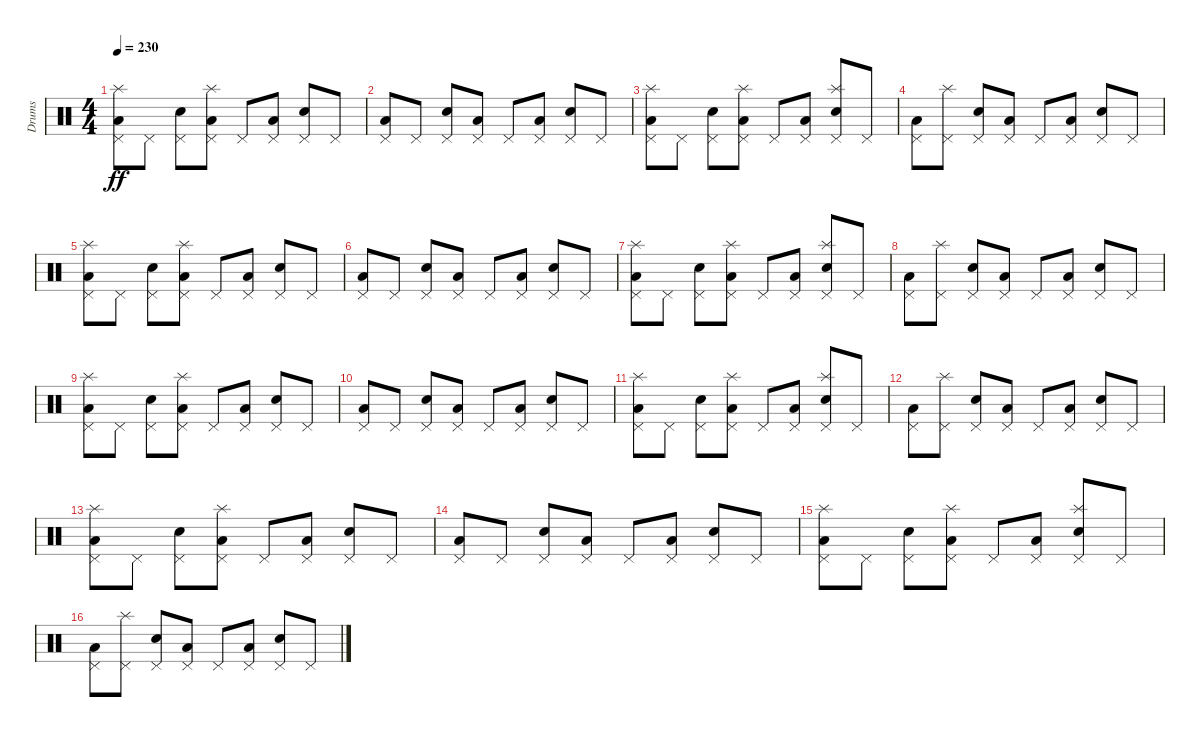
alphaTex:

\track ("Drums" "Drums") {instrument percussion}
\staff {score}
\articulation defaults
\ts (4 4)
\tempo 230
\clef neutral
\ks c
("Low Floor Tom (hit)" "Pedal Hi-Hat (hit)" "Splash (hit)").8{dy ff} "Pedal Hi-Hat (hit)".8 ("Electric Snare (hit)" "Pedal Hi-Hat (hit)").8 ("Low Floor Tom (hit)" "Pedal Hi-Hat (hit)" "Splash (hit)").8 "Pedal Hi-Hat (hit)".8 ("Low Floor Tom (hit)" "Pedal Hi-Hat (hit)").8 ("Electric Snare (hit)" "Pedal Hi-Hat (hit)").8 "Pedal Hi-Hat (hit)".8 |
("Low Floor Tom (hit)" "Pedal Hi-Hat (hit)").8 "Pedal Hi-Hat (hit)".8 ("Electric Snare (hit)" "Pedal Hi-Hat (hit)").8 ("Low Floor Tom (hit)" "Pedal Hi-Hat (hit)").8 "Pedal Hi-Hat (hit)".8 ("Low Floor Tom (hit)" "Pedal Hi-Hat (hit)").8 ("Electric Snare (hit)" "Pedal Hi-Hat (hit)").8 "Pedal Hi-Hat (hit)".8 |
("Low Floor Tom (hit)" "Pedal Hi-Hat (hit)" "Splash (hit)").8 "Pedal Hi-Hat (hit)".8 ("Electric Snare (hit)" "Pedal Hi-Hat (hit)").8 ("Low Floor Tom (hit)" "Pedal Hi-Hat (hit)" "Splash (hit)").8 "Pedal Hi-Hat (hit)".8 ("Low Floor Tom (hit)" "Pedal Hi-Hat (hit)").8 ("Electric Snare (hit)" "Pedal Hi-Hat (hit)" "Splash (hit)").8 "Pedal Hi-Hat (hit)".8 |
("Low Floor Tom (hit)" "Pedal Hi-Hat (hit)").8 ("Pedal Hi-Hat (hit)" "Splash (hit)").8 ("Electric Snare (hit)" "Pedal Hi-Hat (hit)").8 ("Low Floor Tom (hit)" "Pedal Hi-Hat (hit)").8 "Pedal Hi-Hat (hit)".8 ("Low Floor Tom (hit)" "Pedal Hi-Hat (hit)").8 ("Electric Snare (hit)" "Pedal Hi-Hat (hit)").8 "Pedal Hi-Hat (hit)".8 |
("Low Floor Tom (hit)" "Pedal Hi-Hat (hit)" "Splash (hit)").8 "Pedal Hi-Hat (hit)".8 ("Electric Snare (hit)" "Pedal Hi-Hat (hit)").8 ("Low Floor Tom (hit)" "Pedal Hi-Hat (hit)" "Splash (hit)").8 "Pedal Hi-Hat (hit)".8 ("Low Floor Tom (hit)" "Pedal Hi-Hat (hit)").8 ("Electric Snare (hit)" "Pedal Hi-Hat (hit)").8 "Pedal Hi-Hat (hit)".8 |
("Low Floor Tom (hit)" "Pedal Hi-Hat (hit)").8 "Pedal Hi-Hat (hit)".8 ("Electric Snare (hit)" "Pedal Hi-Hat (hit)").8 ("Low Floor Tom (hit)" "Pedal Hi-Hat (hit)").8 "Pedal Hi-Hat (hit)".8 ("Low Floor Tom (hit)" "Pedal Hi-Hat (hit)").8 ("Electric Snare (hit)" "Pedal Hi-Hat (hit)").8 "Pedal Hi-Hat (hit)".8 |
("Low Floor Tom (hit)" "Pedal Hi-Hat (hit)" "Splash (hit)").8 "Pedal Hi-Hat (hit)".8 ("Electric Snare (hit)" "Pedal Hi-Hat (hit)").8 ("Low Floor Tom (hit)" "Pedal Hi-Hat (hit)" "Splash (hit)").8 "Pedal Hi-Hat (hit)".8 ("Low Floor Tom (hit)" "Pedal Hi-Hat (hit)").8 ("Electric Snare (hit)" "Pedal Hi-Hat (hit)" "Splash (hit)").8 "Pedal Hi-Hat (hit)".8 |
("Low Floor Tom (hit)" "Pedal Hi-Hat (hit)").8 ("Pedal Hi-Hat (hit)" "Splash (hit)").8 ("Electric Snare (hit)" "Pedal Hi-Hat (hit)").8 ("Low Floor Tom (hit)" "Pedal Hi-Hat (hit)").8 "Pedal Hi-Hat (hit)".8 ("Low Floor Tom (hit)" "Pedal Hi-Hat (hit)").8 ("Electric Snare (hit)" "Pedal Hi-Hat (hit)").8 "Pedal Hi-Hat (hit)".8 |
("Low Floor Tom (hit)" "Pedal Hi-Hat (hit)" "Splash (hit)").8 "Pedal Hi-Hat (hit)".8 ("Electric Snare (hit)" "Pedal Hi-Hat (hit)").8 ("Low Floor Tom (hit)" "Pedal Hi-Hat (hit)" "Splash (hit)").8 "Pedal Hi-Hat (hit)".8 ("Low Floor Tom (hit)" "Pedal Hi-Hat (hit)").8 ("Electric Snare (hit)" "Pedal Hi-Hat (hit)").8 "Pedal Hi-Hat (hit)".8 |
("Low Floor Tom (hit)" "Pedal Hi-Hat (hit)").8 "Pedal Hi-Hat (hit)".8 ("Electric Snare (hit)" "Pedal Hi-Hat (hit)").8 ("Low Floor Tom (hit)" "Pedal Hi-Hat (hit)").8 "Pedal Hi-Hat (hit)".8 ("Low Floor Tom (hit)" "Pedal Hi-Hat (hit)").8 ("Electric Snare (hit)" "Pedal Hi-Hat (hit)").8 "Pedal Hi-Hat (hit)".8 |
("Low Floor Tom (hit)" "Pedal Hi-Hat (hit)" "Splash (hit)").8 "Pedal Hi-Hat (hit)".8 ("Electric Snare (hit)" "Pedal Hi-Hat (hit)").8 ("Low Floor Tom (hit)" "Pedal Hi-Hat (hit)" "Splash (hit)").8 "Pedal Hi-Hat (hit)".8 ("Low Floor Tom (hit)" "Pedal Hi-Hat (hit)").8 ("Electric Snare (hit)" "Pedal Hi-Hat (hit)" "Splash (hit)").8 "Pedal Hi-Hat (hit)".8 |
("Low Floor Tom (hit)" "Pedal Hi-Hat (hit)").8 ("Pedal Hi-Hat (hit)" "Splash (hit)").8 ("Electric Snare (hit)" "Pedal Hi-Hat (hit)").8 ("Low Floor Tom (hit)" "Pedal Hi-Hat (hit)").8 "Pedal Hi-Hat (hit)".8 ("Low Floor Tom (hit)" "Pedal Hi-Hat (hit)").8 ("Electric Snare (hit)" "Pedal Hi-Hat (hit)").8 "Pedal Hi-Hat (hit)".8 |
("Low Floor Tom (hit)" "Pedal Hi-Hat (hit)" "Splash (hit)").8 "Pedal Hi-Hat (hit)".8 ("Electric Snare (hit)" "Pedal Hi-Hat (hit)").8 ("Low Floor Tom (hit)" "Pedal Hi-Hat (hit)" "Splash (hit)").8 "Pedal Hi-Hat (hit)".8 ("Low Floor Tom (hit)" "Pedal Hi-Hat (hit)").8 ("Electric Snare (hit)" "Pedal Hi-Hat (hit)").8 "Pedal Hi-Hat (hit)".8 |
("Low Floor Tom (hit)" "Pedal Hi-Hat (hit)").8 "Pedal Hi-Hat (hit)".8 ("Electric Snare (hit)" "Pedal Hi-Hat (hit)").8 ("Low Floor Tom (hit)" "Pedal Hi-Hat (hit)").8 "Pedal Hi-Hat (hit)".8 ("Low Floor Tom (hit)" "Pedal Hi-Hat (hit)").8 ("Electric Snare (hit)" "Pedal Hi-Hat (hit)").8 "Pedal Hi-Hat (hit)".8 |
("Low Floor Tom (hit)" "Pedal Hi-Hat (hit)" "Splash (hit)").8 "Pedal Hi-Hat (hit)".8 ("Electric Snare (hit)" "Pedal Hi-Hat (hit)").8 ("Low Floor Tom (hit)" "Pedal Hi-Hat (hit)" "Splash (hit)").8 "Pedal Hi-Hat (hit)".8 ("Low Floor Tom (hit)" "Pedal Hi-Hat (hit)").8 ("Electric Snare (hit)" "Pedal Hi-Hat (hit)" "Splash (hit)").8 "Pedal Hi-Hat (hit)".8 |
("Low Floor Tom (hit)" "Pedal Hi-Hat (hit)").8 ("Pedal Hi-Hat (hit)" "Splash (hit)").8 ("Electric Snare (hit)" "Pedal Hi-Hat (hit)").8 ("Low Floor Tom (hit)" "Pedal Hi-Hat (hit)").8 "Pedal Hi-Hat (hit)".8 ("Low Floor Tom (hit)" "Pedal Hi-Hat (hit)").8 ("Electric Snare (hit)" "Pedal Hi-Hat (hit)").8 "Pedal Hi-Hat (hit)".8
